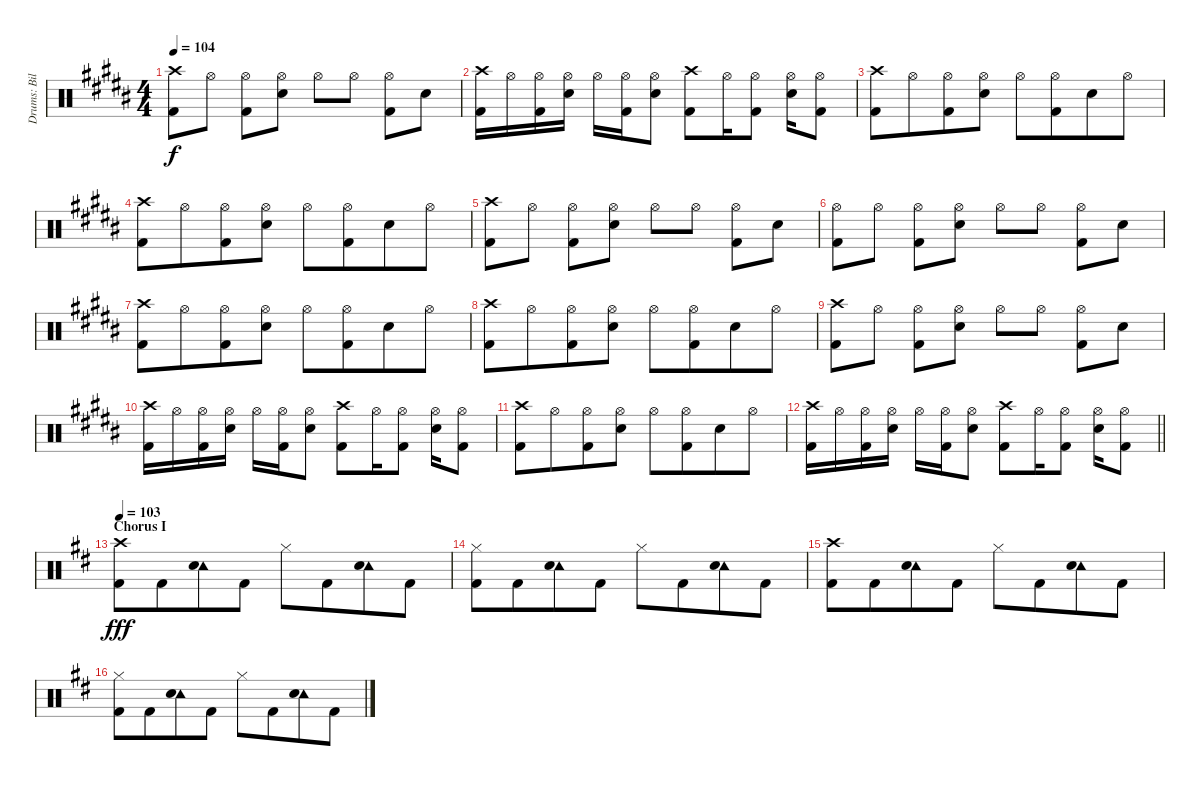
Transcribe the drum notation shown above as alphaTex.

\track ("Drums: Bill" "Drums: Bil") {instrument percussion}
\staff {score}
\articulation defaults
\ts (4 4)
\tempo 104
\clef neutral
\ks b
("Crash high (hit)" "Kick (hit) 2").8{dy f} "Hi-Hat (open)".8 ("Hi-Hat (open)" "Kick (hit) 2").8 ("Hi-Hat (open)" "Electric Snare (hit)").8 "Hi-Hat (open)".8 "Hi-Hat (open)".8 ("Hi-Hat (open)" "Kick (hit) 2").8 "Electric Snare (hit)".8 |
("Crash high (hit)" "Kick (hit) 2").16 "Hi-Hat (open)".16 ("Hi-Hat (open)" "Kick (hit) 2").16 ("Hi-Hat (open)" "Electric Snare (hit)").16 "Hi-Hat (open)".16 ("Hi-Hat (open)" "Kick (hit) 2").16 ("Hi-Hat (open)" "Electric Snare (hit)").8 ("Crash high (hit)" "Kick (hit) 2").8 "Hi-Hat (open)".16 ("Hi-Hat (open)" "Kick (hit) 2").8 ("Hi-Hat (open)" "Electric Snare (hit)").16 ("Hi-Hat (open)" "Kick (hit) 2").8 |
("Crash high (hit)" "Kick (hit) 2").8 "Hi-Hat (open)".8{beam merge} ("Hi-Hat (open)" "Kick (hit) 2").8 ("Hi-Hat (open)" "Electric Snare (hit)").8 "Hi-Hat (open)".8 ("Hi-Hat (open)" "Kick (hit) 2").8{beam merge} "Electric Snare (hit)".8 "Hi-Hat (open)".8 |
("Crash high (hit)" "Kick (hit) 2").8 "Hi-Hat (open)".8{beam merge} ("Hi-Hat (open)" "Kick (hit) 2").8 ("Hi-Hat (open)" "Electric Snare (hit)").8 "Hi-Hat (open)".8 ("Hi-Hat (open)" "Kick (hit) 2").8{beam merge} "Electric Snare (hit)".8 "Hi-Hat (open)".8 |
("Crash high (hit)" "Kick (hit) 2").8 "Hi-Hat (open)".8 ("Hi-Hat (open)" "Kick (hit) 2").8 ("Hi-Hat (open)" "Electric Snare (hit)").8 "Hi-Hat (open)".8 "Hi-Hat (open)".8 ("Hi-Hat (open)" "Kick (hit) 2").8 "Electric Snare (hit)".8 |
("Hi-Hat (open)" "Kick (hit) 2").8 "Hi-Hat (open)".8 ("Hi-Hat (open)" "Kick (hit) 2").8 ("Hi-Hat (open)" "Electric Snare (hit)").8 "Hi-Hat (open)".8 "Hi-Hat (open)".8 ("Hi-Hat (open)" "Kick (hit) 2").8 "Electric Snare (hit)".8 |
("Crash high (hit)" "Kick (hit) 2").8 "Hi-Hat (open)".8{beam merge} ("Hi-Hat (open)" "Kick (hit) 2").8 ("Hi-Hat (open)" "Electric Snare (hit)").8 "Hi-Hat (open)".8 ("Hi-Hat (open)" "Kick (hit) 2").8{beam merge} "Electric Snare (hit)".8 "Hi-Hat (open)".8 |
("Crash high (hit)" "Kick (hit) 2").8 "Hi-Hat (open)".8{beam merge} ("Hi-Hat (open)" "Kick (hit) 2").8 ("Hi-Hat (open)" "Electric Snare (hit)").8 "Hi-Hat (open)".8 ("Hi-Hat (open)" "Kick (hit) 2").8{beam merge} "Electric Snare (hit)".8 "Hi-Hat (open)".8 |
("Crash high (hit)" "Kick (hit) 2").8 "Hi-Hat (open)".8 ("Hi-Hat (open)" "Kick (hit) 2").8 ("Hi-Hat (open)" "Electric Snare (hit)").8 "Hi-Hat (open)".8 "Hi-Hat (open)".8 ("Hi-Hat (open)" "Kick (hit) 2").8 "Electric Snare (hit)".8 |
("Crash high (hit)" "Kick (hit) 2").16 "Hi-Hat (open)".16 ("Hi-Hat (open)" "Kick (hit) 2").16 ("Hi-Hat (open)" "Electric Snare (hit)").16 "Hi-Hat (open)".16 ("Hi-Hat (open)" "Kick (hit) 2").16 ("Hi-Hat (open)" "Electric Snare (hit)").8 ("Crash high (hit)" "Kick (hit) 2").8 "Hi-Hat (open)".16 ("Hi-Hat (open)" "Kick (hit) 2").8 ("Hi-Hat (open)" "Electric Snare (hit)").16 ("Hi-Hat (open)" "Kick (hit) 2").8 |
("Crash high (hit)" "Kick (hit) 2").8 "Hi-Hat (open)".8{beam merge} ("Hi-Hat (open)" "Kick (hit) 2").8 ("Hi-Hat (open)" "Electric Snare (hit)").8 "Hi-Hat (open)".8 ("Hi-Hat (open)" "Kick (hit) 2").8{beam merge} "Electric Snare (hit)".8 "Hi-Hat (open)".8 |
\barLineRight lightlight
("Crash high (hit)" "Kick (hit) 2").16 "Hi-Hat (open)".16 ("Hi-Hat (open)" "Kick (hit) 2").16 ("Hi-Hat (open)" "Electric Snare (hit)").16 "Hi-Hat (open)".16 ("Hi-Hat (open)" "Kick (hit) 2").16 ("Hi-Hat (open)" "Electric Snare (hit)").8 ("Crash high (hit)" "Kick (hit) 2").8 "Hi-Hat (open)".16 ("Hi-Hat (open)" "Kick (hit) 2").8 ("Hi-Hat (open)" "Electric Snare (hit)").16 ("Hi-Hat (open)" "Kick (hit) 2").8 |
\section ("" "Chorus I")
\tempo 103
\ks d
("Crash high (hit)" "Kick (hit) 2").8{dy fff} "Kick (hit) 2".8{beam merge} ("Tambourine (hit)" "Electric Snare (hit)").8 "Kick (hit) 2".8 "Hi-Hat (closed)".8 "Kick (hit) 2".8{beam merge} ("Tambourine (hit)" "Electric Snare (hit)").8 "Kick (hit) 2".8 |
("Hi-Hat (closed)" "Kick (hit) 2").8 "Kick (hit) 2".8{beam merge} ("Tambourine (hit)" "Electric Snare (hit)").8 "Kick (hit) 2".8 "Hi-Hat (closed)".8 "Kick (hit) 2".8{beam merge} ("Tambourine (hit)" "Electric Snare (hit)").8 "Kick (hit) 2".8 |
("Crash high (hit)" "Kick (hit) 2").8 "Kick (hit) 2".8{beam merge} ("Tambourine (hit)" "Electric Snare (hit)").8 "Kick (hit) 2".8 "Hi-Hat (closed)".8 "Kick (hit) 2".8{beam merge} ("Tambourine (hit)" "Electric Snare (hit)").8 "Kick (hit) 2".8 |
("Hi-Hat (closed)" "Kick (hit) 2").8 "Kick (hit) 2".8{beam merge} ("Tambourine (hit)" "Electric Snare (hit)").8 "Kick (hit) 2".8 "Hi-Hat (closed)".8 "Kick (hit) 2".8{beam merge} ("Tambourine (hit)" "Electric Snare (hit)").8 "Kick (hit) 2".8
